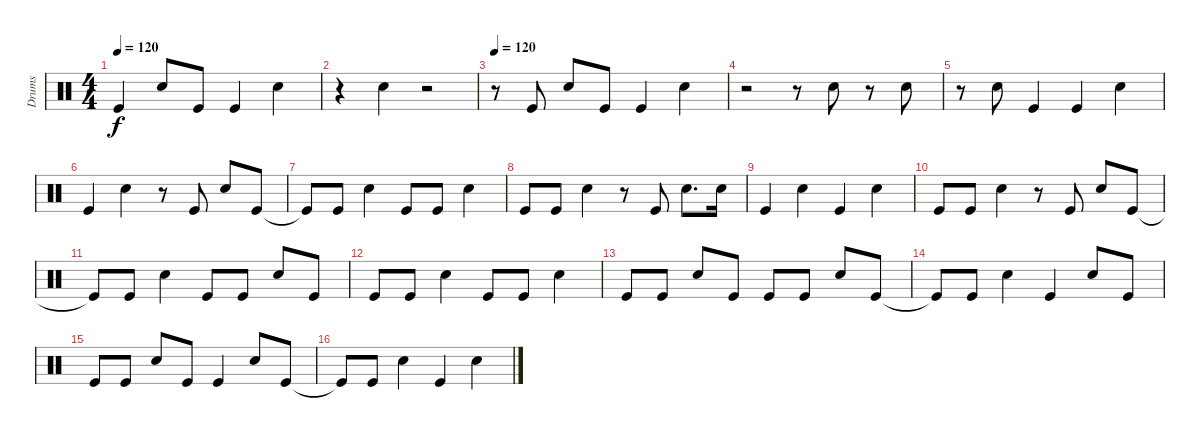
\track ("Drums" "Drums") {instrument percussion}
\staff {score}
\articulation defaults
\ts (4 4)
\tempo 120
\clef neutral
\ks c "Kick (hit)".4{dy f} "Snare (hit) 2".8 "Kick (hit)".8 "Kick (hit)".4 "Snare (hit) 2".4
|
r.4 "Snare (hit) 2".4 r.2 |
\tempo 120
r.8 "Kick (hit)".8 "Snare (hit) 2".8 "Kick (hit)".8 "Kick (hit)".4 "Snare (hit) 2".4 |
r.2 r.8 "Snare (hit) 2".8 r.8 "Snare (hit) 2".8 |
r.8 "Snare (hit) 2".8 "Kick (hit)".4 "Kick (hit)".4 "Snare (hit) 2".4 |
"Kick (hit)".4 "Snare (hit) 2".4 r.8 "Kick (hit)".8 "Snare (hit) 2".8 "Kick (hit)".8 |
"Kick (hit)"{t}.8 "Kick (hit)".8 "Snare (hit) 2".4 "Kick (hit)".8 "Kick (hit)".8 "Snare (hit) 2".4 |
"Kick (hit)".8 "Kick (hit)".8 "Snare (hit) 2".4 r.8 "Kick (hit)".8 "Snare (hit) 2".8{d} "Snare (hit) 2".16 |
"Kick (hit)".4 "Snare (hit) 2".4 "Kick (hit)".4 "Snare (hit) 2".4 |
"Kick (hit)".8 "Kick (hit)".8 "Snare (hit) 2".4 r.8 "Kick (hit)".8 "Snare (hit) 2".8 "Kick (hit)".8 |
"Kick (hit)"{t}.8 "Kick (hit)".8 "Snare (hit) 2".4 "Kick (hit)".8 "Kick (hit)".8 "Snare (hit) 2".8 "Kick (hit)".8 |
"Kick (hit)".8 "Kick (hit)".8 "Snare (hit) 2".4 "Kick (hit)".8 "Kick (hit)".8 "Snare (hit) 2".4 |
"Kick (hit)".8 "Kick (hit)".8 "Snare (hit) 2".8 "Kick (hit)".8 "Kick (hit)".8 "Kick (hit)".8 "Snare (hit) 2".8 "Kick (hit)".8 |
"Kick (hit)"{t}.8 "Kick (hit)".8 "Snare (hit) 2".4 "Kick (hit)".4 "Snare (hit) 2".8 "Kick (hit)".8 |
"Kick (hit)".8 "Kick (hit)".8 "Snare (hit) 2".8 "Kick (hit)".8 "Kick (hit)".4 "Snare (hit) 2".8 "Kick (hit)".8 |
"Kick (hit)"{t}.8 "Kick (hit)".8 "Snare (hit) 2".4 "Kick (hit)".4 "Snare (hit) 2".4
